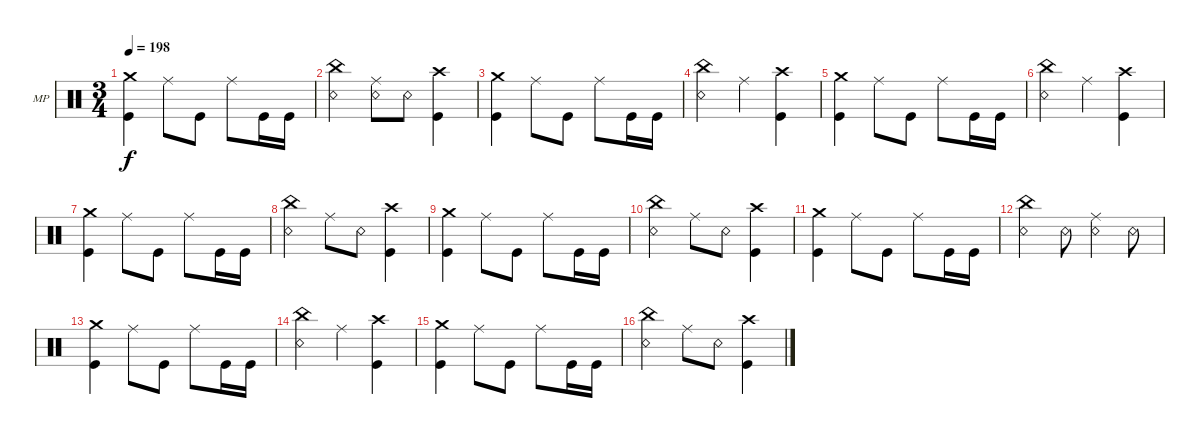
\defaultSystemsLayout 4
\bracketExtendMode groupsimilarinstruments
\firstSystemTrackNameOrientation horizontal
\otherSystemsTrackNameOrientation horizontal
\track ("Mike Portnoy" "MP") {instrument percussion}
\staff {score}
\articulation defaults
\ts (3 4)
\tempo 198
\clef neutral
\ks c
("Crash medium (hit)" "Kick (hit)").4{dy f} "Ride (middle)".8 "Kick (hit)".8 "Ride (middle)".8 "Kick (hit)".16 "Kick (hit)".16 |
("China (hit)" "Snare (rim shot)").4 ("Ride (middle)" "Snare (rim shot)").8 "Snare (rim shot)".8 ("Crash high (hit)" "Kick (hit)").4 |
("Crash medium (hit)" "Kick (hit)").4 "Ride (middle)".8 "Kick (hit)".8 "Ride (middle)".8 "Kick (hit)".16 "Kick (hit)".16 |
("China (hit)" "Snare (rim shot)").4 "Ride (middle)".4 ("Crash high (hit)" "Kick (hit)").4 |
("Crash medium (hit)" "Kick (hit)").4 "Ride (middle)".8 "Kick (hit)".8 "Ride (middle)".8 "Kick (hit)".16 "Kick (hit)".16 |
("China (hit)" "Snare (rim shot)").4 "Ride (middle)".4 ("Crash high (hit)" "Kick (hit)").4 |
("Crash medium (hit)" "Kick (hit)").4 "Ride (middle)".8 "Kick (hit)".8 "Ride (middle)".8 "Kick (hit)".16 "Kick (hit)".16 |
("China (hit)" "Snare (rim shot)").4 "Ride (middle)".8 "Snare (rim shot)".8 ("Crash high (hit)" "Kick (hit)").4 |
("Crash medium (hit)" "Kick (hit)").4 "Ride (middle)".8 "Kick (hit)".8 "Ride (middle)".8 "Kick (hit)".16 "Kick (hit)".16 |
("China (hit)" "Snare (rim shot)").4 "Ride (middle)".8 "Snare (rim shot)".8 ("Crash high (hit)" "Kick (hit)").4 |
("Crash medium (hit)" "Kick (hit)").4 "Ride (middle)".8 "Kick (hit)".8 "Ride (middle)".8 "Kick (hit)".16 "Kick (hit)".16 |
("China (hit)" "Snare (rim shot)").4 "Snare (rim shot)".8 ("Ride (middle)" "Snare (rim shot)").4 "Snare (rim shot)".8 |
("Crash medium (hit)" "Kick (hit)").4 "Ride (middle)".8 "Kick (hit)".8 "Ride (middle)".8 "Kick (hit)".16 "Kick (hit)".16 |
("China (hit)" "Snare (rim shot)").4 "Ride (middle)".4 ("Crash high (hit)" "Kick (hit)").4 |
("Crash medium (hit)" "Kick (hit)").4 "Ride (middle)".8 "Kick (hit)".8 "Ride (middle)".8 "Kick (hit)".16 "Kick (hit)".16 |
("China (hit)" "Snare (rim shot)").4 "Ride (middle)".8 "Snare (rim shot)".8 ("Crash high (hit)" "Kick (hit)").4
